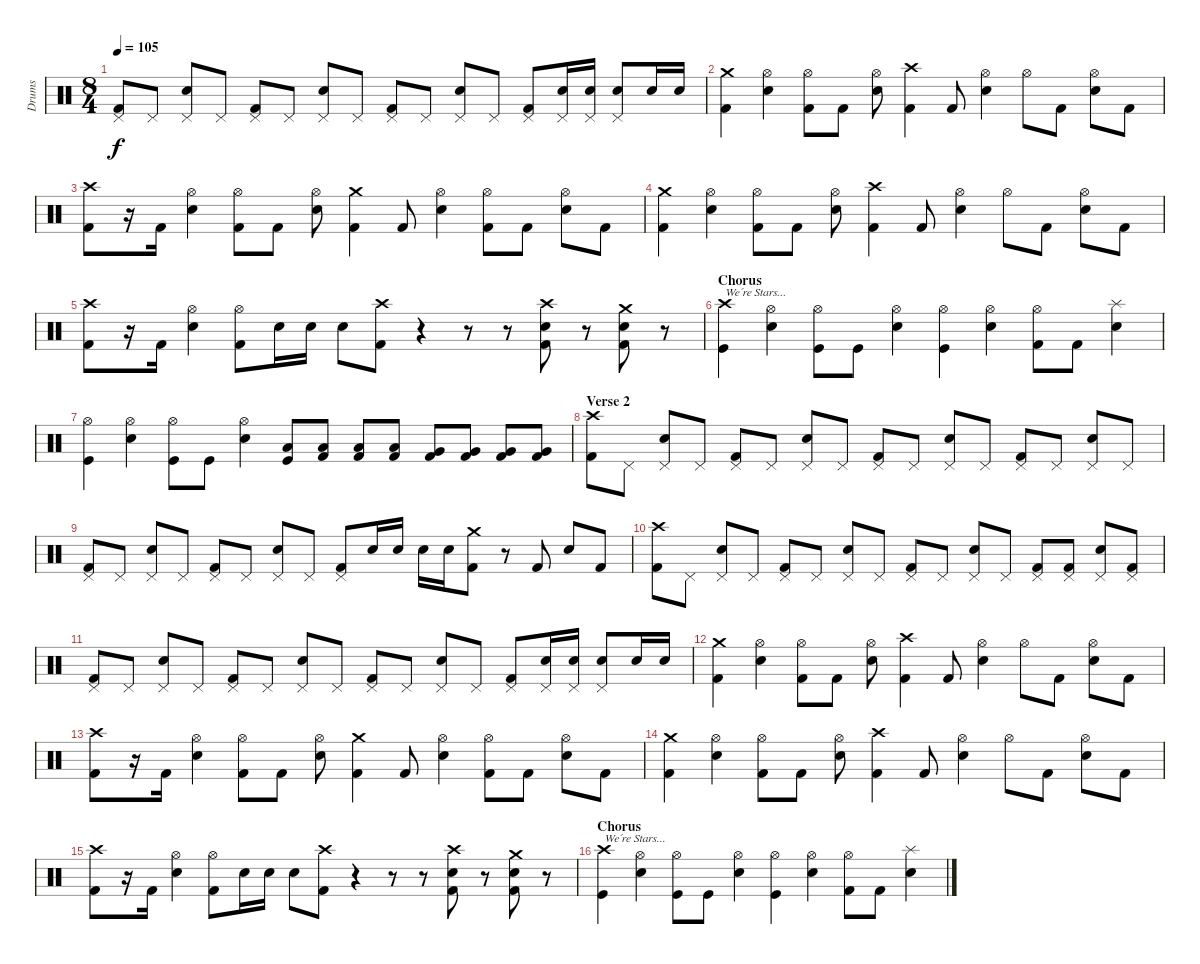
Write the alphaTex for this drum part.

\track ("Drums" "Drums") {instrument percussion}
\staff {score}
\articulation defaults
\ts (8 4)
\tempo 105
\clef neutral
\ks c
("Pedal Hi-Hat (hit)" "Kick (hit) 2").8{dy f} "Pedal Hi-Hat (hit)".8 ("Pedal Hi-Hat (hit)" "Snare (hit) 2").8 "Pedal Hi-Hat (hit)".8 ("Pedal Hi-Hat (hit)" "Kick (hit) 2").8 "Pedal Hi-Hat (hit)".8 ("Pedal Hi-Hat (hit)" "Snare (hit) 2").8 "Pedal Hi-Hat (hit)".8 ("Pedal Hi-Hat (hit)" "Kick (hit) 2").8 "Pedal Hi-Hat (hit)".8 ("Pedal Hi-Hat (hit)" "Snare (hit) 2").8 "Pedal Hi-Hat (hit)".8 ("Pedal Hi-Hat (hit)" "Kick (hit) 2").8 ("Pedal Hi-Hat (hit)" "Snare (hit) 2").16 ("Pedal Hi-Hat (hit)" "Snare (hit) 2").16 ("Pedal Hi-Hat (hit)" "Snare (hit) 2").8 "Snare (hit) 2".16 "Snare (hit) 2".16 |
("Crash medium (hit)" "Kick (hit) 2").4 ("Hi-Hat (open)" "Snare (hit) 2").4 ("Hi-Hat (open)" "Kick (hit) 2").8 "Kick (hit) 2".8 ("Hi-Hat (open)" "Snare (hit) 2").8 ("Crash high (hit)" "Kick (hit) 2").4 "Kick (hit) 2".8 ("Hi-Hat (open)" "Snare (hit) 2").4 "Hi-Hat (open)".8 "Kick (hit) 2".8 ("Hi-Hat (open)" "Snare (hit) 2").8 "Kick (hit) 2".8 |
("Crash high (hit)" "Kick (hit) 2").8 r.16 "Kick (hit) 2".16 ("Hi-Hat (open)" "Snare (hit) 2").4 ("Hi-Hat (open)" "Kick (hit) 2").8 "Kick (hit) 2".8 ("Hi-Hat (open)" "Snare (hit) 2").8 ("Crash medium (hit)" "Kick (hit) 2").4 "Kick (hit) 2".8 ("Hi-Hat (open)" "Snare (hit) 2").4 ("Hi-Hat (open)" "Kick (hit) 2").8 "Kick (hit) 2".8 ("Hi-Hat (open)" "Snare (hit) 2").8 "Kick (hit) 2".8 |
("Crash medium (hit)" "Kick (hit) 2").4 ("Hi-Hat (open)" "Snare (hit) 2").4 ("Hi-Hat (open)" "Kick (hit) 2").8 "Kick (hit) 2".8 ("Hi-Hat (open)" "Snare (hit) 2").8 ("Crash high (hit)" "Kick (hit) 2").4 "Kick (hit) 2".8 ("Hi-Hat (open)" "Snare (hit) 2").4 "Hi-Hat (open)".8 "Kick (hit) 2".8 ("Hi-Hat (open)" "Snare (hit) 2").8 "Kick (hit) 2".8 |
("Crash high (hit)" "Kick (hit) 2").8 r.16 "Kick (hit) 2".16 ("Hi-Hat (open)" "Snare (hit) 2").4 ("Hi-Hat (open)" "Kick (hit) 2").8 "Snare (hit) 2".16 "Snare (hit) 2".16 "Snare (hit) 2".8 ("Crash high (hit)" "Kick (hit) 2").8 r.4 r.8 r.8 ("Crash high (hit)" "Snare (hit) 2" "Kick (hit) 2").8 r.8 ("Crash medium (hit)" "Snare (hit) 2" "Kick (hit) 2").8 r.8 |
\section ("" "Chorus")
("Crash high (hit)" "Kick (hit)").4{txt "We´re Stars..."} ("Hi-Hat (open)" "Snare (hit) 2").4 ("Hi-Hat (open)" "Kick (hit)").8 "Kick (hit)".8 ("Hi-Hat (open)" "Snare (hit) 2").4 ("Hi-Hat (open)" "Kick (hit)").4 ("Hi-Hat (open)" "Snare (hit) 2").4 ("Hi-Hat (open)" "Kick (hit) 2").8 "Kick (hit) 2".8 ("Splash (hit)" "Snare (hit) 2").4 |
("Hi-Hat (open)" "Kick (hit)").4 ("Hi-Hat (open)" "Snare (hit) 2").4 ("Hi-Hat (open)" "Kick (hit)").8 "Kick (hit)".8 ("Hi-Hat (open)" "Snare (hit) 2").4 ("Low Tom (hit)" "Kick (hit)").8 ("Low Tom (hit)" "Kick (hit) 2").8 ("Low Tom (hit)" "Kick (hit) 2").8 ("Low Tom (hit)" "Kick (hit) 2").8 ("Very Low Tom (hit)" "Kick (hit) 2").8 ("Very Low Tom (hit)" "Kick (hit) 2").8 ("Very Low Tom (hit)" "Kick (hit) 2").8 ("Very Low Tom (hit)" "Kick (hit) 2").8 |
\section ("" "Verse 2")
("Crash high (hit)" "Kick (hit) 2").8 "Pedal Hi-Hat (hit)".8 ("Pedal Hi-Hat (hit)" "Snare (hit) 2").8 "Pedal Hi-Hat (hit)".8 ("Pedal Hi-Hat (hit)" "Kick (hit) 2").8 "Pedal Hi-Hat (hit)".8 ("Pedal Hi-Hat (hit)" "Snare (hit) 2").8 "Pedal Hi-Hat (hit)".8 ("Pedal Hi-Hat (hit)" "Kick (hit) 2").8 "Pedal Hi-Hat (hit)".8 ("Pedal Hi-Hat (hit)" "Snare (hit) 2").8 "Pedal Hi-Hat (hit)".8 ("Pedal Hi-Hat (hit)" "Kick (hit) 2").8 "Pedal Hi-Hat (hit)".8 ("Pedal Hi-Hat (hit)" "Snare (hit) 2").8 "Pedal Hi-Hat (hit)".8 |
("Pedal Hi-Hat (hit)" "Kick (hit) 2").8 "Pedal Hi-Hat (hit)".8 ("Pedal Hi-Hat (hit)" "Snare (hit) 2").8 "Pedal Hi-Hat (hit)".8 ("Pedal Hi-Hat (hit)" "Kick (hit) 2").8 "Pedal Hi-Hat (hit)".8 ("Pedal Hi-Hat (hit)" "Snare (hit) 2").8 "Pedal Hi-Hat (hit)".8 ("Pedal Hi-Hat (hit)" "Kick (hit) 2").8 "Snare (hit) 2".16 "Snare (hit) 2".16 "Snare (hit) 2".16 "Snare (hit) 2".16 ("Crash medium (hit)" "Kick (hit) 2").8 r.8 "Kick (hit) 2".8 "Snare (hit) 2".8 "Kick (hit) 2".8 |
("Crash high (hit)" "Kick (hit) 2").8 "Pedal Hi-Hat (hit)".8 ("Pedal Hi-Hat (hit)" "Snare (hit) 2").8 "Pedal Hi-Hat (hit)".8 ("Pedal Hi-Hat (hit)" "Kick (hit) 2").8 "Pedal Hi-Hat (hit)".8 ("Pedal Hi-Hat (hit)" "Snare (hit) 2").8 "Pedal Hi-Hat (hit)".8 ("Pedal Hi-Hat (hit)" "Kick (hit) 2").8 "Pedal Hi-Hat (hit)".8 ("Pedal Hi-Hat (hit)" "Snare (hit) 2").8 "Pedal Hi-Hat (hit)".8 ("Pedal Hi-Hat (hit)" "Kick (hit) 2").8 ("Pedal Hi-Hat (hit)" "Kick (hit) 2").8 ("Pedal Hi-Hat (hit)" "Snare (hit) 2").8 ("Pedal Hi-Hat (hit)" "Kick (hit) 2").8 |
("Pedal Hi-Hat (hit)" "Kick (hit) 2").8 "Pedal Hi-Hat (hit)".8 ("Pedal Hi-Hat (hit)" "Snare (hit) 2").8 "Pedal Hi-Hat (hit)".8 ("Pedal Hi-Hat (hit)" "Kick (hit) 2").8 "Pedal Hi-Hat (hit)".8 ("Pedal Hi-Hat (hit)" "Snare (hit) 2").8 "Pedal Hi-Hat (hit)".8 ("Pedal Hi-Hat (hit)" "Kick (hit) 2").8 "Pedal Hi-Hat (hit)".8 ("Pedal Hi-Hat (hit)" "Snare (hit) 2").8 "Pedal Hi-Hat (hit)".8 ("Pedal Hi-Hat (hit)" "Kick (hit) 2").8 ("Pedal Hi-Hat (hit)" "Snare (hit) 2").16 ("Pedal Hi-Hat (hit)" "Snare (hit) 2").16 ("Pedal Hi-Hat (hit)" "Snare (hit) 2").8 "Snare (hit) 2".16 "Snare (hit) 2".16 |
("Crash medium (hit)" "Kick (hit) 2").4 ("Hi-Hat (open)" "Snare (hit) 2").4 ("Hi-Hat (open)" "Kick (hit) 2").8 "Kick (hit) 2".8 ("Hi-Hat (open)" "Snare (hit) 2").8 ("Crash high (hit)" "Kick (hit) 2").4 "Kick (hit) 2".8 ("Hi-Hat (open)" "Snare (hit) 2").4 "Hi-Hat (open)".8 "Kick (hit) 2".8 ("Hi-Hat (open)" "Snare (hit) 2").8 "Kick (hit) 2".8 |
("Crash high (hit)" "Kick (hit) 2").8 r.16 "Kick (hit) 2".16 ("Hi-Hat (open)" "Snare (hit) 2").4 ("Hi-Hat (open)" "Kick (hit) 2").8 "Kick (hit) 2".8 ("Hi-Hat (open)" "Snare (hit) 2").8 ("Crash medium (hit)" "Kick (hit) 2").4 "Kick (hit) 2".8 ("Hi-Hat (open)" "Snare (hit) 2").4 ("Hi-Hat (open)" "Kick (hit) 2").8 "Kick (hit) 2".8 ("Hi-Hat (open)" "Snare (hit) 2").8 "Kick (hit) 2".8 |
("Crash medium (hit)" "Kick (hit) 2").4 ("Hi-Hat (open)" "Snare (hit) 2").4 ("Hi-Hat (open)" "Kick (hit) 2").8 "Kick (hit) 2".8 ("Hi-Hat (open)" "Snare (hit) 2").8 ("Crash high (hit)" "Kick (hit) 2").4 "Kick (hit) 2".8 ("Hi-Hat (open)" "Snare (hit) 2").4 "Hi-Hat (open)".8 "Kick (hit) 2".8 ("Hi-Hat (open)" "Snare (hit) 2").8 "Kick (hit) 2".8 |
("Crash high (hit)" "Kick (hit) 2").8 r.16 "Kick (hit) 2".16 ("Hi-Hat (open)" "Snare (hit) 2").4 ("Hi-Hat (open)" "Kick (hit) 2").8 "Snare (hit) 2".16 "Snare (hit) 2".16 "Snare (hit) 2".8 ("Crash high (hit)" "Kick (hit) 2").8 r.4 r.8 r.8 ("Crash high (hit)" "Snare (hit) 2" "Kick (hit) 2").8 r.8 ("Crash medium (hit)" "Snare (hit) 2" "Kick (hit) 2").8 r.8 |
\section ("" "Chorus")
("Crash high (hit)" "Kick (hit)").4{txt "We´re Stars..."} ("Hi-Hat (open)" "Snare (hit) 2").4 ("Hi-Hat (open)" "Kick (hit)").8 "Kick (hit)".8 ("Hi-Hat (open)" "Snare (hit) 2").4 ("Hi-Hat (open)" "Kick (hit)").4 ("Hi-Hat (open)" "Snare (hit) 2").4 ("Hi-Hat (open)" "Kick (hit) 2").8 "Kick (hit) 2".8 ("Splash (hit)" "Snare (hit) 2").4
